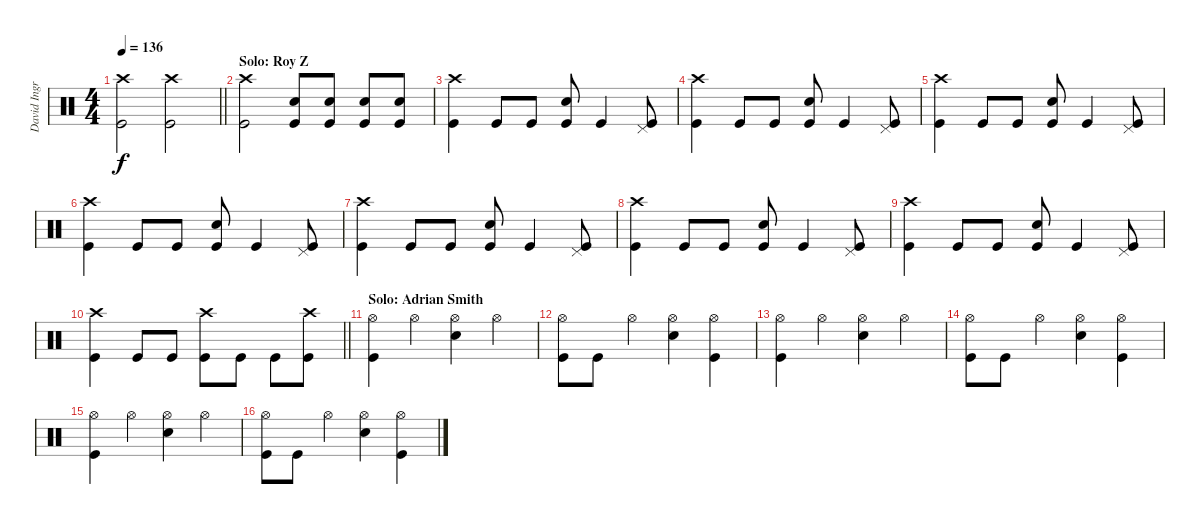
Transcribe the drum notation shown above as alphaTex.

\track ("David Ingraham" "David Ingr") {instrument percussion}
\staff {score}
\articulation defaults
\ts (4 4)
\tempo 136
\clef neutral
\barLineRight lightlight
\ks c
("Crash high (hit)" "Kick (hit)").2{dy f} ("Crash high (hit)" "Kick (hit)").2 |
\section ("" "Solo: Roy Z")
("Crash high (hit)" "Kick (hit)").2 ("Snare (hit) 2" "Kick (hit)").8 ("Snare (hit) 2" "Kick (hit)").8 ("Snare (hit) 2" "Kick (hit)").8 ("Snare (hit) 2" "Kick (hit)").8 |
("Crash high (hit)" "Kick (hit)").4 "Kick (hit)".8 "Kick (hit)".8 ("Snare (hit) 2" "Kick (hit)").8 "Kick (hit)".4 ("Pedal Hi-Hat (hit)" "Kick (hit)").8 |
("Crash high (hit)" "Kick (hit)").4 "Kick (hit)".8 "Kick (hit)".8 ("Snare (hit) 2" "Kick (hit)").8 "Kick (hit)".4 ("Pedal Hi-Hat (hit)" "Kick (hit)").8 |
("Crash high (hit)" "Kick (hit)").4 "Kick (hit)".8 "Kick (hit)".8 ("Snare (hit) 2" "Kick (hit)").8 "Kick (hit)".4 ("Pedal Hi-Hat (hit)" "Kick (hit)").8 |
("Crash high (hit)" "Kick (hit)").4 "Kick (hit)".8 "Kick (hit)".8 ("Snare (hit) 2" "Kick (hit)").8 "Kick (hit)".4 ("Pedal Hi-Hat (hit)" "Kick (hit)").8 |
("Crash high (hit)" "Kick (hit)").4 "Kick (hit)".8 "Kick (hit)".8 ("Snare (hit) 2" "Kick (hit)").8 "Kick (hit)".4 ("Pedal Hi-Hat (hit)" "Kick (hit)").8 |
("Crash high (hit)" "Kick (hit)").4 "Kick (hit)".8 "Kick (hit)".8 ("Snare (hit) 2" "Kick (hit)").8 "Kick (hit)".4 ("Pedal Hi-Hat (hit)" "Kick (hit)").8 |
("Crash high (hit)" "Kick (hit)").4 "Kick (hit)".8 "Kick (hit)".8 ("Snare (hit) 2" "Kick (hit)").8 "Kick (hit)".4 ("Pedal Hi-Hat (hit)" "Kick (hit)").8 |
\barLineRight lightlight
("Crash high (hit)" "Kick (hit)").4 "Kick (hit)".8 "Kick (hit)".8 ("Crash high (hit)" "Kick (hit)").8 "Kick (hit)".8 "Kick (hit)".8 ("Crash high (hit)" "Kick (hit)").8 |
\section ("" "Solo: Adrian Smith")
("Hi-Hat (open)" "Kick (hit)").4 "Hi-Hat (open)".4 ("Hi-Hat (open)" "Snare (hit) 2").4 "Hi-Hat (open)".4 |
("Hi-Hat (open)" "Kick (hit)").8 "Kick (hit)".8 "Hi-Hat (open)".4 ("Hi-Hat (open)" "Snare (hit) 2").4 ("Hi-Hat (open)" "Kick (hit)").4 |
("Hi-Hat (open)" "Kick (hit)").4 "Hi-Hat (open)".4 ("Hi-Hat (open)" "Snare (hit) 2").4 "Hi-Hat (open)".4 |
("Hi-Hat (open)" "Kick (hit)").8 "Kick (hit)".8 "Hi-Hat (open)".4 ("Hi-Hat (open)" "Snare (hit) 2").4 ("Hi-Hat (open)" "Kick (hit)").4 |
("Hi-Hat (open)" "Kick (hit)").4 "Hi-Hat (open)".4 ("Hi-Hat (open)" "Snare (hit) 2").4 "Hi-Hat (open)".4 |
("Hi-Hat (open)" "Kick (hit)").8 "Kick (hit)".8 "Hi-Hat (open)".4 ("Hi-Hat (open)" "Snare (hit) 2").4 ("Hi-Hat (open)" "Kick (hit)").4
